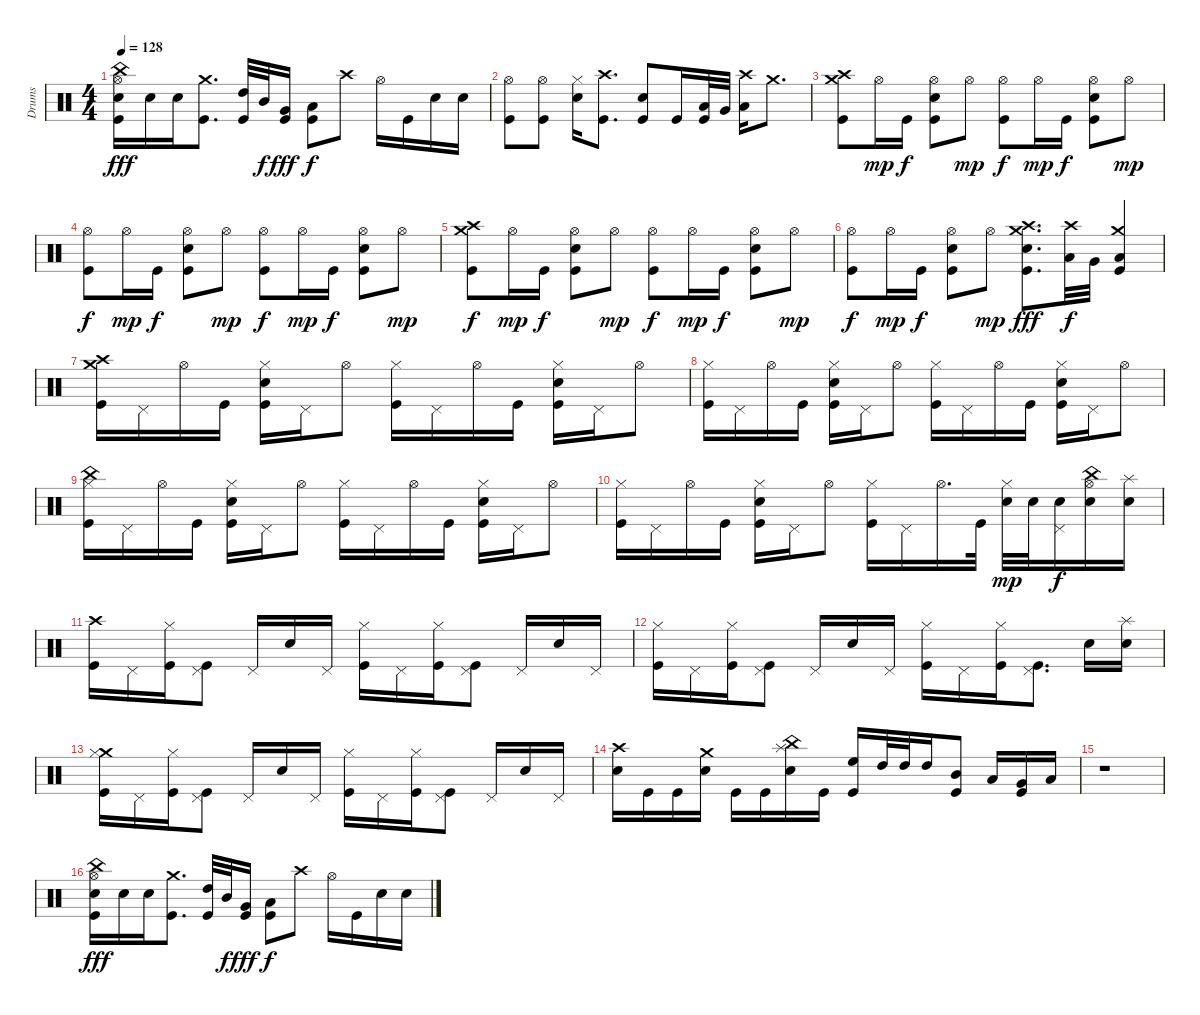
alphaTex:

\track ("Drums" "Drums") {instrument percussion}
\staff {score}
\articulation defaults
\ts (4 4)
\tempo 128
\clef neutral
\ks c
("Hi-Hat (open)" "China (hit)" "Kick (hit)" "Snare (hit) 2").16{dy fff} "Snare (hit) 2".16 "Snare (hit) 2".16 ("Kick (hit)" "Crash medium (hit)").8{d} ("Kick (hit)" "High Tom (hit)").32 "Mid Tom (hit)".32{dy f} ("Kick (hit)" "Very Low Tom (hit)").16{dy fff} ("Low Floor Tom (hit)" "Kick (hit)").8{dy f} "Crash high (hit)".8 "Hi-Hat (open)".16 "Kick (hit)".16 "Snare (hit) 2".16 "Snare (hit) 2".16 |
("Hi-Hat (open)" "Kick (hit)").8 ("Hi-Hat (open)" "Kick (hit)").8 ("Hi-Hat (closed)" "Snare (hit) 2").16 ("Crash high (hit)" "Kick (hit)").8{d} ("Snare (hit) 2" "Kick (hit)").8 "Kick (hit)".16 ("Low Tom (hit)" "Kick (hit)").32 "Very Low Tom (hit)".32 ("Low Floor Tom (hit)" "Crash high (hit)").16 "Crash medium (hit)".8{d} |
("Kick (hit)" "Crash medium (hit)" "Crash high (hit)").8 "Hi-Hat (open)".16{dy mp} "Kick (hit)".16{dy f} ("Snare (hit) 2" "Kick (hit)" "Hi-Hat (open)").8 "Hi-Hat (open)".8{dy mp} ("Kick (hit)" "Hi-Hat (open)").8{dy f} "Hi-Hat (open)".16{dy mp} "Kick (hit)".16{dy f} ("Snare (hit) 2" "Kick (hit)" "Hi-Hat (open)").8 "Hi-Hat (open)".8{dy mp} |
("Hi-Hat (open)" "Kick (hit)").8{dy f} "Hi-Hat (open)".16{dy mp} "Kick (hit)".16{dy f} ("Hi-Hat (open)" "Snare (hit) 2" "Kick (hit)").8 "Hi-Hat (open)".8{dy mp} ("Hi-Hat (open)" "Kick (hit)").8{dy f} "Hi-Hat (open)".16{dy mp} "Kick (hit)".16{dy f} ("Hi-Hat (open)" "Snare (hit) 2" "Kick (hit)").8 "Hi-Hat (open)".8{dy mp} |
("Kick (hit)" "Crash medium (hit)" "Crash high (hit)").8{dy f} "Hi-Hat (open)".16{dy mp} "Kick (hit)".16{dy f} ("Snare (hit) 2" "Kick (hit)" "Hi-Hat (open)").8 "Hi-Hat (open)".8{dy mp} ("Kick (hit)" "Hi-Hat (open)").8{dy f} "Hi-Hat (open)".16{dy mp} "Kick (hit)".16{dy f} ("Snare (hit) 2" "Kick (hit)" "Hi-Hat (open)").8 "Hi-Hat (open)".8{dy mp} |
("Kick (hit)" "Hi-Hat (open)").8{dy f} "Hi-Hat (open)".16{dy mp} "Kick (hit)".16{dy f} ("Snare (hit) 2" "Kick (hit)" "Hi-Hat (open)").8 "Hi-Hat (open)".8{dy mp} ("Crash medium (hit)" "Crash high (hit)" "Snare (hit) 2" "Kick (hit)").8{d dy fff} ("Crash high (hit)" "Low Tom (hit)").32{dy f} "Very Low Tom (hit)".32 ("Crash medium (hit)" "Kick (hit)" "Low Floor Tom (hit)").4 |
("Crash medium (hit)" "Crash high (hit)" "Kick (hit)").16 "Pedal Hi-Hat (hit)".16 "Hi-Hat (open)".16 "Kick (hit)".16 ("Hi-Hat (closed)" "Snare (hit) 2" "Kick (hit)").16 "Pedal Hi-Hat (hit)".16 "Hi-Hat (open)".8 ("Hi-Hat (closed)" "Kick (hit)").16 "Pedal Hi-Hat (hit)".16 "Hi-Hat (open)".16 "Kick (hit)".16 ("Hi-Hat (closed)" "Snare (hit) 2" "Kick (hit)").16 "Pedal Hi-Hat (hit)".16 "Hi-Hat (open)".8 |
("Hi-Hat (closed)" "Kick (hit)").16 "Pedal Hi-Hat (hit)".16 "Hi-Hat (open)".16 "Kick (hit)".16 ("Hi-Hat (closed)" "Snare (hit) 2" "Kick (hit)").16 "Pedal Hi-Hat (hit)".16 "Hi-Hat (open)".8 ("Hi-Hat (closed)" "Kick (hit)").16 "Pedal Hi-Hat (hit)".16 "Hi-Hat (open)".16 "Kick (hit)".16 ("Hi-Hat (closed)" "Snare (hit) 2" "Kick (hit)").16 "Pedal Hi-Hat (hit)".16 "Hi-Hat (open)".8 |
("China (hit)" "Hi-Hat (closed)" "Kick (hit)").16 "Pedal Hi-Hat (hit)".16 "Hi-Hat (open)".16 "Kick (hit)".16 ("Hi-Hat (closed)" "Snare (hit) 2" "Kick (hit)").16 "Pedal Hi-Hat (hit)".16 "Hi-Hat (open)".8 ("Hi-Hat (closed)" "Kick (hit)").16 "Pedal Hi-Hat (hit)".16 "Hi-Hat (open)".16 "Kick (hit)".16 ("Hi-Hat (closed)" "Snare (hit) 2" "Kick (hit)").16 "Pedal Hi-Hat (hit)".16 "Hi-Hat (open)".8 |
("Hi-Hat (closed)" "Kick (hit)").16 "Pedal Hi-Hat (hit)".16 "Hi-Hat (open)".16 "Kick (hit)".16 ("Hi-Hat (closed)" "Snare (hit) 2" "Kick (hit)").16 "Pedal Hi-Hat (hit)".16 "Hi-Hat (open)".8 ("Hi-Hat (closed)" "Kick (hit)").16 "Pedal Hi-Hat (hit)".16 "Hi-Hat (open)".16{d} "Kick (hit)".32 ("Hi-Hat (closed)" "Snare (hit) 2").32{dy mp} "Snare (hit) 2".32 ("Pedal Hi-Hat (hit)" "Snare (hit) 2").16{dy f} ("Hi-Hat (open)" "China (hit)" "Snare (hit) 2").16 ("Splash (hit)" "Snare (hit) 2").16 |
("Kick (hit)" "Crash high (hit)").16 "Pedal Hi-Hat (hit)".16 ("Hi-Hat (closed)" "Kick (hit)").16 ("Pedal Hi-Hat (hit)" "Kick (hit)").8 "Pedal Hi-Hat (hit)".16 "Snare (hit) 2".16 "Pedal Hi-Hat (hit)".16 ("Hi-Hat (closed)" "Kick (hit)").16 "Pedal Hi-Hat (hit)".16 ("Hi-Hat (closed)" "Kick (hit)").16 ("Pedal Hi-Hat (hit)" "Kick (hit)").8 "Pedal Hi-Hat (hit)".16 "Snare (hit) 2".16 "Pedal Hi-Hat (hit)".16 |
("Hi-Hat (closed)" "Kick (hit)").16 "Pedal Hi-Hat (hit)".16 ("Hi-Hat (closed)" "Kick (hit)").16 ("Kick (hit)" "Pedal Hi-Hat (hit)").8 "Pedal Hi-Hat (hit)".16 "Snare (hit) 2".16 "Pedal Hi-Hat (hit)".16 ("Hi-Hat (closed)" "Kick (hit)").16 "Pedal Hi-Hat (hit)".16 ("Hi-Hat (closed)" "Kick (hit)").16 ("Pedal Hi-Hat (hit)" "Kick (hit)").8{d} "Snare (hit) 2".16 ("Splash (hit)" "Snare (hit) 2").16 |
("Crash medium (hit)" "Hi-Hat (closed)" "Kick (hit)").16 "Pedal Hi-Hat (hit)".16 ("Kick (hit)" "Hi-Hat (closed)").16 ("Pedal Hi-Hat (hit)" "Kick (hit)").8 "Pedal Hi-Hat (hit)".16 "Snare (hit) 2".16 "Pedal Hi-Hat (hit)".16 ("Hi-Hat (closed)" "Kick (hit)").16 "Pedal Hi-Hat (hit)".16 ("Hi-Hat (closed)" "Kick (hit)").16 ("Pedal Hi-Hat (hit)" "Kick (hit)").8 "Pedal Hi-Hat (hit)".16 "Snare (hit) 2".16 "Pedal Hi-Hat (hit)".16 |
("Crash high (hit)" "Snare (hit) 2").16 "Kick (hit)".16 "Kick (hit)".16 ("Snare (hit) 2" "Crash medium (hit)").16 "Kick (hit)".16 "Kick (hit)".16 ("Splash (hit)" "China (hit)" "Snare (hit) 2").16 "Kick (hit)".16 ("High Floor Tom (hit)" "Kick (hit)").16 "High Tom (hit)".32 "High Tom (hit)".32 "High Tom (hit)".16 ("Mid Tom (hit)" "Kick (hit)").8 "Low Tom (hit)".16 ("Very Low Tom (hit)" "Kick (hit)").16 "Low Floor Tom (hit)".16 |
r.1 |
("Hi-Hat (open)" "China (hit)" "Kick (hit)" "Snare (hit) 2").16{dy fff} "Snare (hit) 2".16 "Snare (hit) 2".16 ("Kick (hit)" "Crash medium (hit)").8{d} ("Kick (hit)" "High Tom (hit)").32 "Mid Tom (hit)".32{dy f} ("Kick (hit)" "Very Low Tom (hit)").16{dy fff} ("Low Floor Tom (hit)" "Kick (hit)").8{dy f} "Crash high (hit)".8 "Hi-Hat (open)".16 "Kick (hit)".16 "Snare (hit) 2".16 "Snare (hit) 2".16
